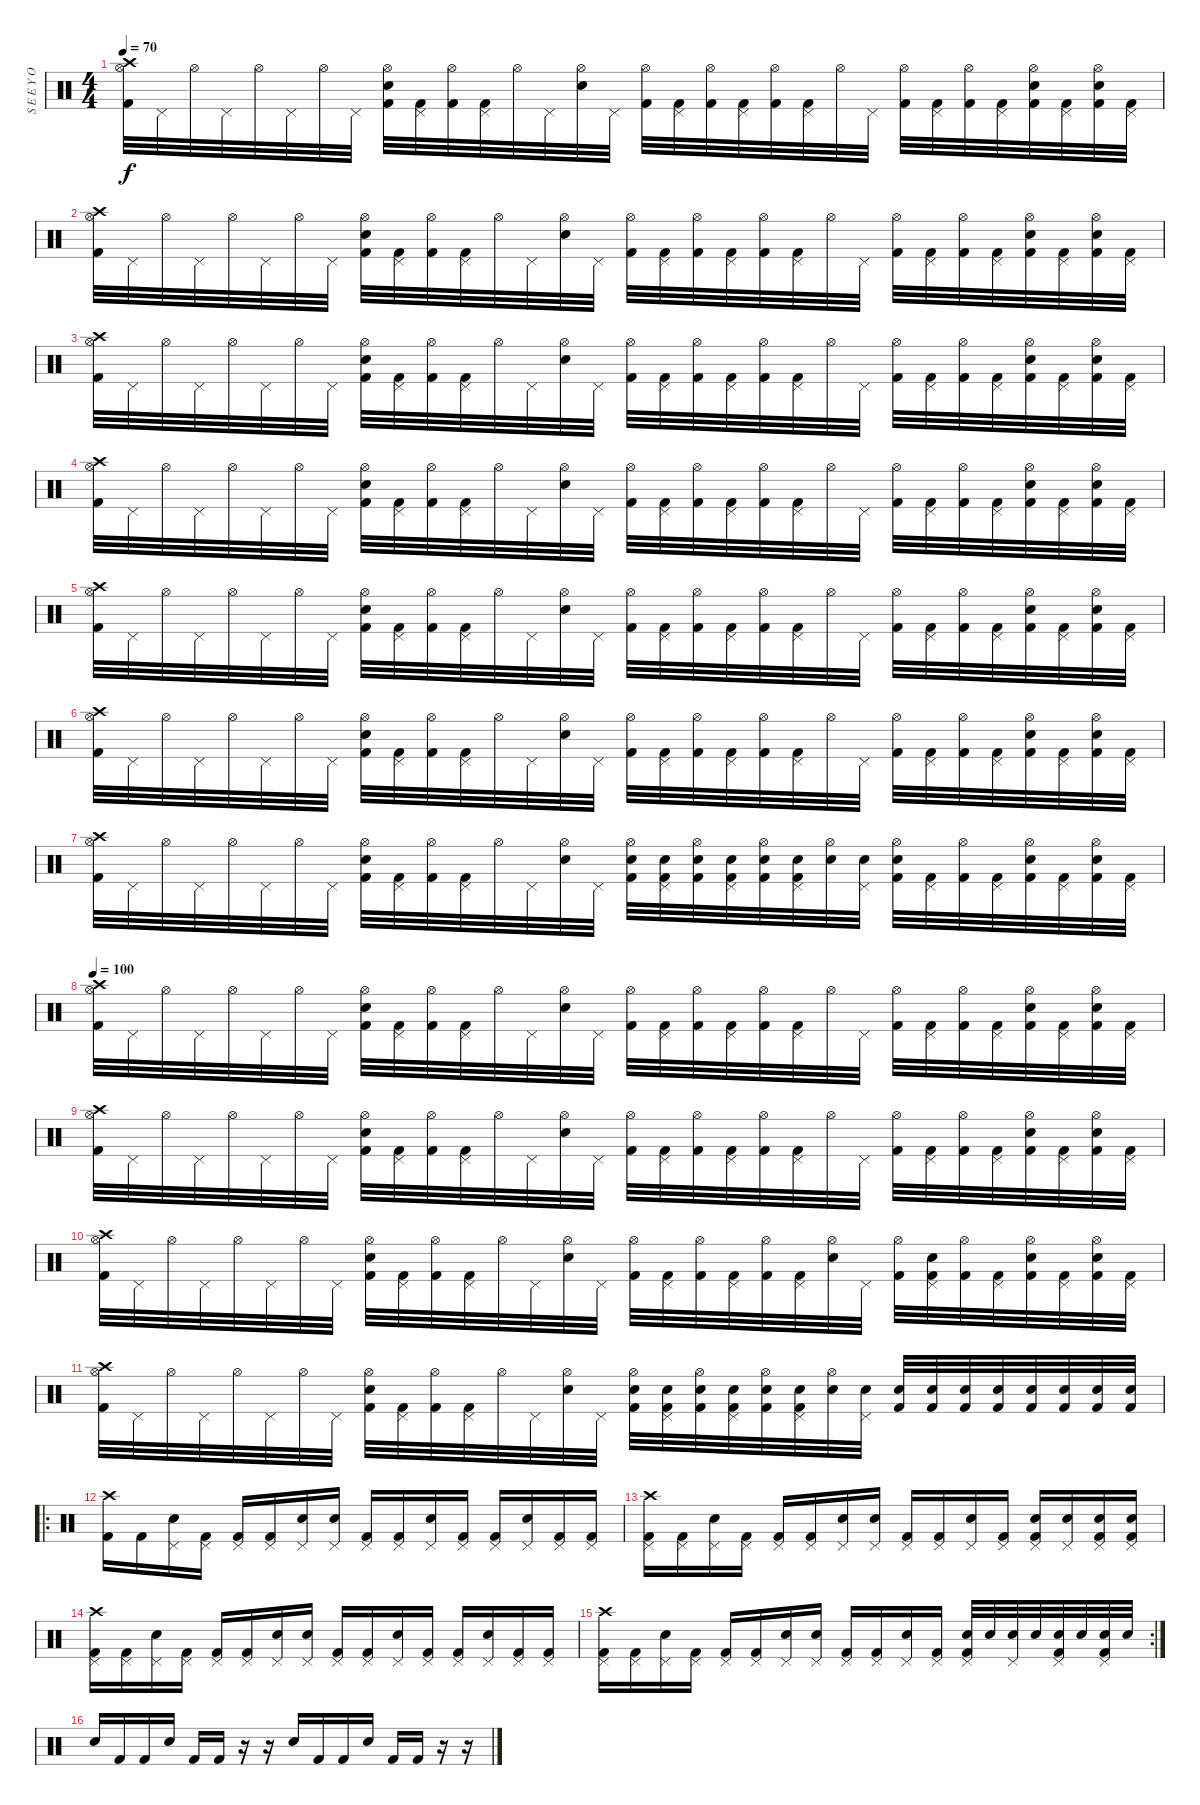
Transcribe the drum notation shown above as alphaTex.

\track ("S E E Y O U R " "S E E Y O ") {instrument percussion}
\staff {score}
\articulation defaults
\ts (4 4)
\tempo 70
\clef neutral
\ks c
("Crash high (hit)" "Hi-Hat (open)" "Kick (hit) 2").32{dy f} "Pedal Hi-Hat (hit)".32 "Hi-Hat (open)".32 "Pedal Hi-Hat (hit)".32 "Hi-Hat (open)".32 "Pedal Hi-Hat (hit)".32 "Hi-Hat (open)".32 "Pedal Hi-Hat (hit)".32 ("Hi-Hat (open)" "Electric Snare (hit)" "Kick (hit) 2").32 ("Pedal Hi-Hat (hit)" "Kick (hit) 2").32 ("Hi-Hat (open)" "Kick (hit) 2").32 ("Pedal Hi-Hat (hit)" "Kick (hit) 2").32 "Hi-Hat (open)".32 "Pedal Hi-Hat (hit)".32 ("Hi-Hat (open)" "Electric Snare (hit)").32 "Pedal Hi-Hat (hit)".32 ("Hi-Hat (open)" "Kick (hit) 2").32 ("Pedal Hi-Hat (hit)" "Kick (hit) 2").32 ("Hi-Hat (open)" "Kick (hit) 2").32 ("Pedal Hi-Hat (hit)" "Kick (hit) 2").32 ("Hi-Hat (open)" "Kick (hit) 2").32 ("Pedal Hi-Hat (hit)" "Kick (hit) 2").32 "Hi-Hat (open)".32 "Pedal Hi-Hat (hit)".32 ("Hi-Hat (open)" "Kick (hit) 2").32 ("Pedal Hi-Hat (hit)" "Kick (hit) 2").32 ("Hi-Hat (open)" "Kick (hit) 2").32 ("Pedal Hi-Hat (hit)" "Kick (hit) 2").32 ("Hi-Hat (open)" "Electric Snare (hit)" "Kick (hit) 2").32 ("Pedal Hi-Hat (hit)" "Kick (hit) 2").32 ("Hi-Hat (open)" "Electric Snare (hit)" "Kick (hit) 2").32 ("Pedal Hi-Hat (hit)" "Kick (hit) 2").32 |
("Crash high (hit)" "Hi-Hat (open)" "Kick (hit) 2").32 "Pedal Hi-Hat (hit)".32 "Hi-Hat (open)".32 "Pedal Hi-Hat (hit)".32 "Hi-Hat (open)".32 "Pedal Hi-Hat (hit)".32 "Hi-Hat (open)".32 "Pedal Hi-Hat (hit)".32 ("Hi-Hat (open)" "Electric Snare (hit)" "Kick (hit) 2").32 ("Pedal Hi-Hat (hit)" "Kick (hit) 2").32 ("Hi-Hat (open)" "Kick (hit) 2").32 ("Pedal Hi-Hat (hit)" "Kick (hit) 2").32 "Hi-Hat (open)".32 "Pedal Hi-Hat (hit)".32 ("Hi-Hat (open)" "Electric Snare (hit)").32 "Pedal Hi-Hat (hit)".32 ("Hi-Hat (open)" "Kick (hit) 2").32 ("Pedal Hi-Hat (hit)" "Kick (hit) 2").32 ("Hi-Hat (open)" "Kick (hit) 2").32 ("Pedal Hi-Hat (hit)" "Kick (hit) 2").32 ("Hi-Hat (open)" "Kick (hit) 2").32 ("Pedal Hi-Hat (hit)" "Kick (hit) 2").32 "Hi-Hat (open)".32 "Pedal Hi-Hat (hit)".32 ("Hi-Hat (open)" "Kick (hit) 2").32 ("Pedal Hi-Hat (hit)" "Kick (hit) 2").32 ("Hi-Hat (open)" "Kick (hit) 2").32 ("Pedal Hi-Hat (hit)" "Kick (hit) 2").32 ("Hi-Hat (open)" "Electric Snare (hit)" "Kick (hit) 2").32 ("Pedal Hi-Hat (hit)" "Kick (hit) 2").32 ("Hi-Hat (open)" "Electric Snare (hit)" "Kick (hit) 2").32 ("Pedal Hi-Hat (hit)" "Kick (hit) 2").32 |
("Crash high (hit)" "Hi-Hat (open)" "Kick (hit) 2").32 "Pedal Hi-Hat (hit)".32 "Hi-Hat (open)".32 "Pedal Hi-Hat (hit)".32 "Hi-Hat (open)".32 "Pedal Hi-Hat (hit)".32 "Hi-Hat (open)".32 "Pedal Hi-Hat (hit)".32 ("Hi-Hat (open)" "Electric Snare (hit)" "Kick (hit) 2").32 ("Pedal Hi-Hat (hit)" "Kick (hit) 2").32 ("Hi-Hat (open)" "Kick (hit) 2").32 ("Pedal Hi-Hat (hit)" "Kick (hit) 2").32 "Hi-Hat (open)".32 "Pedal Hi-Hat (hit)".32 ("Hi-Hat (open)" "Electric Snare (hit)").32 "Pedal Hi-Hat (hit)".32 ("Hi-Hat (open)" "Kick (hit) 2").32 ("Pedal Hi-Hat (hit)" "Kick (hit) 2").32 ("Hi-Hat (open)" "Kick (hit) 2").32 ("Pedal Hi-Hat (hit)" "Kick (hit) 2").32 ("Hi-Hat (open)" "Kick (hit) 2").32 ("Pedal Hi-Hat (hit)" "Kick (hit) 2").32 "Hi-Hat (open)".32 "Pedal Hi-Hat (hit)".32 ("Hi-Hat (open)" "Kick (hit) 2").32 ("Pedal Hi-Hat (hit)" "Kick (hit) 2").32 ("Hi-Hat (open)" "Kick (hit) 2").32 ("Pedal Hi-Hat (hit)" "Kick (hit) 2").32 ("Hi-Hat (open)" "Electric Snare (hit)" "Kick (hit) 2").32 ("Pedal Hi-Hat (hit)" "Kick (hit) 2").32 ("Hi-Hat (open)" "Electric Snare (hit)" "Kick (hit) 2").32 ("Pedal Hi-Hat (hit)" "Kick (hit) 2").32 |
("Crash high (hit)" "Hi-Hat (open)" "Kick (hit) 2").32 "Pedal Hi-Hat (hit)".32 "Hi-Hat (open)".32 "Pedal Hi-Hat (hit)".32 "Hi-Hat (open)".32 "Pedal Hi-Hat (hit)".32 "Hi-Hat (open)".32 "Pedal Hi-Hat (hit)".32 ("Hi-Hat (open)" "Electric Snare (hit)" "Kick (hit) 2").32 ("Pedal Hi-Hat (hit)" "Kick (hit) 2").32 ("Hi-Hat (open)" "Kick (hit) 2").32 ("Pedal Hi-Hat (hit)" "Kick (hit) 2").32 "Hi-Hat (open)".32 "Pedal Hi-Hat (hit)".32 ("Hi-Hat (open)" "Electric Snare (hit)").32 "Pedal Hi-Hat (hit)".32 ("Hi-Hat (open)" "Kick (hit) 2").32 ("Pedal Hi-Hat (hit)" "Kick (hit) 2").32 ("Hi-Hat (open)" "Kick (hit) 2").32 ("Pedal Hi-Hat (hit)" "Kick (hit) 2").32 ("Hi-Hat (open)" "Kick (hit) 2").32 ("Pedal Hi-Hat (hit)" "Kick (hit) 2").32 "Hi-Hat (open)".32 "Pedal Hi-Hat (hit)".32 ("Hi-Hat (open)" "Kick (hit) 2").32 ("Pedal Hi-Hat (hit)" "Kick (hit) 2").32 ("Hi-Hat (open)" "Kick (hit) 2").32 ("Pedal Hi-Hat (hit)" "Kick (hit) 2").32 ("Hi-Hat (open)" "Electric Snare (hit)" "Kick (hit) 2").32 ("Pedal Hi-Hat (hit)" "Kick (hit) 2").32 ("Hi-Hat (open)" "Electric Snare (hit)" "Kick (hit) 2").32 ("Pedal Hi-Hat (hit)" "Kick (hit) 2").32 |
("Crash high (hit)" "Hi-Hat (open)" "Kick (hit) 2").32 "Pedal Hi-Hat (hit)".32 "Hi-Hat (open)".32 "Pedal Hi-Hat (hit)".32 "Hi-Hat (open)".32 "Pedal Hi-Hat (hit)".32 "Hi-Hat (open)".32 "Pedal Hi-Hat (hit)".32 ("Hi-Hat (open)" "Electric Snare (hit)" "Kick (hit) 2").32 ("Pedal Hi-Hat (hit)" "Kick (hit) 2").32 ("Hi-Hat (open)" "Kick (hit) 2").32 ("Pedal Hi-Hat (hit)" "Kick (hit) 2").32 "Hi-Hat (open)".32 "Pedal Hi-Hat (hit)".32 ("Hi-Hat (open)" "Electric Snare (hit)").32 "Pedal Hi-Hat (hit)".32 ("Hi-Hat (open)" "Kick (hit) 2").32 ("Pedal Hi-Hat (hit)" "Kick (hit) 2").32 ("Hi-Hat (open)" "Kick (hit) 2").32 ("Pedal Hi-Hat (hit)" "Kick (hit) 2").32 ("Hi-Hat (open)" "Kick (hit) 2").32 ("Pedal Hi-Hat (hit)" "Kick (hit) 2").32 "Hi-Hat (open)".32 "Pedal Hi-Hat (hit)".32 ("Hi-Hat (open)" "Kick (hit) 2").32 ("Pedal Hi-Hat (hit)" "Kick (hit) 2").32 ("Hi-Hat (open)" "Kick (hit) 2").32 ("Pedal Hi-Hat (hit)" "Kick (hit) 2").32 ("Hi-Hat (open)" "Electric Snare (hit)" "Kick (hit) 2").32 ("Pedal Hi-Hat (hit)" "Kick (hit) 2").32 ("Hi-Hat (open)" "Electric Snare (hit)" "Kick (hit) 2").32 ("Pedal Hi-Hat (hit)" "Kick (hit) 2").32 |
("Crash high (hit)" "Hi-Hat (open)" "Kick (hit) 2").32 "Pedal Hi-Hat (hit)".32 "Hi-Hat (open)".32 "Pedal Hi-Hat (hit)".32 "Hi-Hat (open)".32 "Pedal Hi-Hat (hit)".32 "Hi-Hat (open)".32 "Pedal Hi-Hat (hit)".32 ("Hi-Hat (open)" "Electric Snare (hit)" "Kick (hit) 2").32 ("Pedal Hi-Hat (hit)" "Kick (hit) 2").32 ("Hi-Hat (open)" "Kick (hit) 2").32 ("Pedal Hi-Hat (hit)" "Kick (hit) 2").32 "Hi-Hat (open)".32 "Pedal Hi-Hat (hit)".32 ("Hi-Hat (open)" "Electric Snare (hit)").32 "Pedal Hi-Hat (hit)".32 ("Hi-Hat (open)" "Kick (hit) 2").32 ("Pedal Hi-Hat (hit)" "Kick (hit) 2").32 ("Hi-Hat (open)" "Kick (hit) 2").32 ("Pedal Hi-Hat (hit)" "Kick (hit) 2").32 ("Hi-Hat (open)" "Kick (hit) 2").32 ("Pedal Hi-Hat (hit)" "Kick (hit) 2").32 "Hi-Hat (open)".32 "Pedal Hi-Hat (hit)".32 ("Hi-Hat (open)" "Kick (hit) 2").32 ("Pedal Hi-Hat (hit)" "Kick (hit) 2").32 ("Hi-Hat (open)" "Kick (hit) 2").32 ("Pedal Hi-Hat (hit)" "Kick (hit) 2").32 ("Hi-Hat (open)" "Electric Snare (hit)" "Kick (hit) 2").32 ("Pedal Hi-Hat (hit)" "Kick (hit) 2").32 ("Hi-Hat (open)" "Electric Snare (hit)" "Kick (hit) 2").32 ("Pedal Hi-Hat (hit)" "Kick (hit) 2").32 |
("Crash high (hit)" "Hi-Hat (open)" "Kick (hit) 2").32 "Pedal Hi-Hat (hit)".32 "Hi-Hat (open)".32 "Pedal Hi-Hat (hit)".32 "Hi-Hat (open)".32 "Pedal Hi-Hat (hit)".32 "Hi-Hat (open)".32 "Pedal Hi-Hat (hit)".32 ("Hi-Hat (open)" "Electric Snare (hit)" "Kick (hit) 2").32 ("Pedal Hi-Hat (hit)" "Kick (hit) 2").32 ("Hi-Hat (open)" "Kick (hit) 2").32 ("Pedal Hi-Hat (hit)" "Kick (hit) 2").32 "Hi-Hat (open)".32 "Pedal Hi-Hat (hit)".32 ("Hi-Hat (open)" "Electric Snare (hit)").32 "Pedal Hi-Hat (hit)".32 ("Hi-Hat (open)" "Electric Snare (hit)" "Kick (hit) 2").32 ("Pedal Hi-Hat (hit)" "Electric Snare (hit)" "Kick (hit) 2").32 ("Hi-Hat (open)" "Electric Snare (hit)" "Kick (hit) 2").32 ("Pedal Hi-Hat (hit)" "Electric Snare (hit)" "Kick (hit) 2").32 ("Hi-Hat (open)" "Electric Snare (hit)" "Kick (hit) 2").32 ("Pedal Hi-Hat (hit)" "Electric Snare (hit)" "Kick (hit) 2").32 ("Hi-Hat (open)" "Electric Snare (hit)").32 ("Pedal Hi-Hat (hit)" "Electric Snare (hit)").32 ("Hi-Hat (open)" "Electric Snare (hit)" "Kick (hit) 2").32 ("Pedal Hi-Hat (hit)" "Kick (hit) 2").32 ("Hi-Hat (open)" "Kick (hit) 2").32 ("Pedal Hi-Hat (hit)" "Kick (hit) 2").32 ("Hi-Hat (open)" "Electric Snare (hit)" "Kick (hit) 2").32 ("Pedal Hi-Hat (hit)" "Kick (hit) 2").32 ("Hi-Hat (open)" "Electric Snare (hit)" "Kick (hit) 2").32 ("Pedal Hi-Hat (hit)" "Kick (hit) 2").32 |
\tempo 100
("Crash high (hit)" "Hi-Hat (open)" "Kick (hit) 2").32 "Pedal Hi-Hat (hit)".32 "Hi-Hat (open)".32 "Pedal Hi-Hat (hit)".32 "Hi-Hat (open)".32 "Pedal Hi-Hat (hit)".32 "Hi-Hat (open)".32 "Pedal Hi-Hat (hit)".32 ("Hi-Hat (open)" "Electric Snare (hit)" "Kick (hit) 2").32 ("Pedal Hi-Hat (hit)" "Kick (hit) 2").32 ("Hi-Hat (open)" "Kick (hit) 2").32 ("Pedal Hi-Hat (hit)" "Kick (hit) 2").32 "Hi-Hat (open)".32 "Pedal Hi-Hat (hit)".32 ("Hi-Hat (open)" "Electric Snare (hit)").32 "Pedal Hi-Hat (hit)".32 ("Hi-Hat (open)" "Kick (hit) 2").32 ("Pedal Hi-Hat (hit)" "Kick (hit) 2").32 ("Hi-Hat (open)" "Kick (hit) 2").32 ("Pedal Hi-Hat (hit)" "Kick (hit) 2").32 ("Hi-Hat (open)" "Kick (hit) 2").32 ("Pedal Hi-Hat (hit)" "Kick (hit) 2").32 "Hi-Hat (open)".32 "Pedal Hi-Hat (hit)".32 ("Hi-Hat (open)" "Kick (hit) 2").32 ("Pedal Hi-Hat (hit)" "Kick (hit) 2").32 ("Hi-Hat (open)" "Kick (hit) 2").32 ("Pedal Hi-Hat (hit)" "Kick (hit) 2").32 ("Hi-Hat (open)" "Electric Snare (hit)" "Kick (hit) 2").32 ("Pedal Hi-Hat (hit)" "Kick (hit) 2").32 ("Hi-Hat (open)" "Electric Snare (hit)" "Kick (hit) 2").32 ("Pedal Hi-Hat (hit)" "Kick (hit) 2").32 |
("Crash high (hit)" "Hi-Hat (open)" "Kick (hit) 2").32 "Pedal Hi-Hat (hit)".32 "Hi-Hat (open)".32 "Pedal Hi-Hat (hit)".32 "Hi-Hat (open)".32 "Pedal Hi-Hat (hit)".32 "Hi-Hat (open)".32 "Pedal Hi-Hat (hit)".32 ("Hi-Hat (open)" "Electric Snare (hit)" "Kick (hit) 2").32 ("Pedal Hi-Hat (hit)" "Kick (hit) 2").32 ("Hi-Hat (open)" "Kick (hit) 2").32 ("Pedal Hi-Hat (hit)" "Kick (hit) 2").32 "Hi-Hat (open)".32 "Pedal Hi-Hat (hit)".32 ("Hi-Hat (open)" "Electric Snare (hit)").32 "Pedal Hi-Hat (hit)".32 ("Hi-Hat (open)" "Kick (hit) 2").32 ("Pedal Hi-Hat (hit)" "Kick (hit) 2").32 ("Hi-Hat (open)" "Kick (hit) 2").32 ("Pedal Hi-Hat (hit)" "Kick (hit) 2").32 ("Hi-Hat (open)" "Kick (hit) 2").32 ("Pedal Hi-Hat (hit)" "Kick (hit) 2").32 "Hi-Hat (open)".32 "Pedal Hi-Hat (hit)".32 ("Hi-Hat (open)" "Kick (hit) 2").32 ("Pedal Hi-Hat (hit)" "Kick (hit) 2").32 ("Hi-Hat (open)" "Kick (hit) 2").32 ("Pedal Hi-Hat (hit)" "Kick (hit) 2").32 ("Hi-Hat (open)" "Electric Snare (hit)" "Kick (hit) 2").32 ("Pedal Hi-Hat (hit)" "Kick (hit) 2").32 ("Hi-Hat (open)" "Electric Snare (hit)" "Kick (hit) 2").32 ("Pedal Hi-Hat (hit)" "Kick (hit) 2").32 |
("Crash high (hit)" "Hi-Hat (open)" "Kick (hit) 2").32 "Pedal Hi-Hat (hit)".32 "Hi-Hat (open)".32 "Pedal Hi-Hat (hit)".32 "Hi-Hat (open)".32 "Pedal Hi-Hat (hit)".32 "Hi-Hat (open)".32 "Pedal Hi-Hat (hit)".32 ("Hi-Hat (open)" "Electric Snare (hit)" "Kick (hit) 2").32 ("Pedal Hi-Hat (hit)" "Kick (hit) 2").32 ("Hi-Hat (open)" "Kick (hit) 2").32 ("Pedal Hi-Hat (hit)" "Kick (hit) 2").32 "Hi-Hat (open)".32 "Pedal Hi-Hat (hit)".32 ("Hi-Hat (open)" "Electric Snare (hit)").32 "Pedal Hi-Hat (hit)".32 ("Hi-Hat (open)" "Kick (hit) 2").32 ("Pedal Hi-Hat (hit)" "Kick (hit) 2").32 ("Hi-Hat (open)" "Kick (hit) 2").32 ("Pedal Hi-Hat (hit)" "Kick (hit) 2").32 ("Hi-Hat (open)" "Kick (hit) 2").32 ("Pedal Hi-Hat (hit)" "Kick (hit) 2").32 ("Hi-Hat (open)" "Electric Snare (hit)").32 "Pedal Hi-Hat (hit)".32 ("Hi-Hat (open)" "Kick (hit) 2").32 ("Pedal Hi-Hat (hit)" "Electric Snare (hit)" "Kick (hit) 2").32 ("Hi-Hat (open)" "Kick (hit) 2").32 ("Pedal Hi-Hat (hit)" "Kick (hit) 2").32 ("Hi-Hat (open)" "Electric Snare (hit)" "Kick (hit) 2").32 ("Pedal Hi-Hat (hit)" "Kick (hit) 2").32 ("Hi-Hat (open)" "Electric Snare (hit)" "Kick (hit) 2").32 ("Pedal Hi-Hat (hit)" "Kick (hit) 2").32 |
("Crash high (hit)" "Hi-Hat (open)" "Kick (hit) 2").32 "Pedal Hi-Hat (hit)".32 "Hi-Hat (open)".32 "Pedal Hi-Hat (hit)".32 "Hi-Hat (open)".32 "Pedal Hi-Hat (hit)".32 "Hi-Hat (open)".32 "Pedal Hi-Hat (hit)".32 ("Hi-Hat (open)" "Electric Snare (hit)" "Kick (hit) 2").32 ("Pedal Hi-Hat (hit)" "Kick (hit) 2").32 ("Hi-Hat (open)" "Kick (hit) 2").32 ("Pedal Hi-Hat (hit)" "Kick (hit) 2").32 "Hi-Hat (open)".32 "Pedal Hi-Hat (hit)".32 ("Hi-Hat (open)" "Electric Snare (hit)").32 "Pedal Hi-Hat (hit)".32 ("Hi-Hat (open)" "Electric Snare (hit)" "Kick (hit) 2").32 ("Pedal Hi-Hat (hit)" "Electric Snare (hit)" "Kick (hit) 2").32 ("Hi-Hat (open)" "Electric Snare (hit)" "Kick (hit) 2").32 ("Pedal Hi-Hat (hit)" "Electric Snare (hit)" "Kick (hit) 2").32 ("Hi-Hat (open)" "Electric Snare (hit)" "Kick (hit) 2").32 ("Pedal Hi-Hat (hit)" "Electric Snare (hit)" "Kick (hit) 2").32 ("Hi-Hat (open)" "Electric Snare (hit)").32 ("Pedal Hi-Hat (hit)" "Electric Snare (hit)").32 ("Electric Snare (hit)" "Kick (hit) 2").32 ("Electric Snare (hit)" "Kick (hit) 2").32 ("Electric Snare (hit)" "Kick (hit) 2").32 ("Electric Snare (hit)" "Kick (hit) 2").32 ("Electric Snare (hit)" "Kick (hit) 2").32 ("Electric Snare (hit)" "Kick (hit) 2").32 ("Electric Snare (hit)" "Kick (hit) 2").32 ("Electric Snare (hit)" "Kick (hit) 2").32 |
\ro
("Crash high (hit)" "Kick (hit) 2").16 "Kick (hit) 2".16 ("Pedal Hi-Hat (hit)" "Electric Snare (hit)").16 ("Pedal Hi-Hat (hit)" "Kick (hit) 2").16 ("Pedal Hi-Hat (hit)" "Kick (hit) 2").16 ("Pedal Hi-Hat (hit)" "Kick (hit) 2").16 ("Pedal Hi-Hat (hit)" "Electric Snare (hit)").16 ("Pedal Hi-Hat (hit)" "Electric Snare (hit)").16 ("Pedal Hi-Hat (hit)" "Kick (hit) 2").16 ("Pedal Hi-Hat (hit)" "Kick (hit) 2").16 ("Pedal Hi-Hat (hit)" "Electric Snare (hit)").16 ("Pedal Hi-Hat (hit)" "Kick (hit) 2").16 ("Pedal Hi-Hat (hit)" "Kick (hit) 2").16 ("Pedal Hi-Hat (hit)" "Electric Snare (hit)").16 ("Pedal Hi-Hat (hit)" "Kick (hit) 2").16 ("Pedal Hi-Hat (hit)" "Kick (hit) 2").16 |
("Crash high (hit)" "Pedal Hi-Hat (hit)" "Kick (hit) 2").16 ("Pedal Hi-Hat (hit)" "Kick (hit) 2").16 ("Pedal Hi-Hat (hit)" "Electric Snare (hit)").16 ("Pedal Hi-Hat (hit)" "Kick (hit) 2").16 ("Pedal Hi-Hat (hit)" "Kick (hit) 2").16 ("Pedal Hi-Hat (hit)" "Kick (hit) 2").16 ("Pedal Hi-Hat (hit)" "Electric Snare (hit)").16 ("Pedal Hi-Hat (hit)" "Electric Snare (hit)").16 ("Pedal Hi-Hat (hit)" "Kick (hit) 2").16 ("Pedal Hi-Hat (hit)" "Kick (hit) 2").16 ("Pedal Hi-Hat (hit)" "Electric Snare (hit)").16 ("Pedal Hi-Hat (hit)" "Kick (hit) 2").16 ("Pedal Hi-Hat (hit)" "Electric Snare (hit)" "Kick (hit) 2").16 ("Pedal Hi-Hat (hit)" "Electric Snare (hit)").16 ("Pedal Hi-Hat (hit)" "Electric Snare (hit)" "Kick (hit) 2").16 ("Pedal Hi-Hat (hit)" "Electric Snare (hit)" "Kick (hit) 2").16 |
("Crash high (hit)" "Pedal Hi-Hat (hit)" "Kick (hit) 2").16 ("Pedal Hi-Hat (hit)" "Kick (hit) 2").16 ("Pedal Hi-Hat (hit)" "Electric Snare (hit)").16 ("Pedal Hi-Hat (hit)" "Kick (hit) 2").16 ("Pedal Hi-Hat (hit)" "Kick (hit) 2").16 ("Pedal Hi-Hat (hit)" "Kick (hit) 2").16 ("Pedal Hi-Hat (hit)" "Electric Snare (hit)").16 ("Pedal Hi-Hat (hit)" "Electric Snare (hit)").16 ("Pedal Hi-Hat (hit)" "Kick (hit) 2").16 ("Pedal Hi-Hat (hit)" "Kick (hit) 2").16 ("Pedal Hi-Hat (hit)" "Electric Snare (hit)").16 ("Pedal Hi-Hat (hit)" "Kick (hit) 2").16 ("Pedal Hi-Hat (hit)" "Kick (hit) 2").16 ("Pedal Hi-Hat (hit)" "Electric Snare (hit)").16 ("Pedal Hi-Hat (hit)" "Kick (hit) 2").16 ("Pedal Hi-Hat (hit)" "Kick (hit) 2").16 |
\rc 2
("Crash high (hit)" "Pedal Hi-Hat (hit)" "Kick (hit) 2").16 ("Pedal Hi-Hat (hit)" "Kick (hit) 2").16 ("Pedal Hi-Hat (hit)" "Electric Snare (hit)").16 ("Pedal Hi-Hat (hit)" "Kick (hit) 2").16 ("Pedal Hi-Hat (hit)" "Kick (hit) 2").16 ("Pedal Hi-Hat (hit)" "Kick (hit) 2").16 ("Pedal Hi-Hat (hit)" "Electric Snare (hit)").16 ("Pedal Hi-Hat (hit)" "Electric Snare (hit)").16 ("Pedal Hi-Hat (hit)" "Kick (hit) 2").16 ("Pedal Hi-Hat (hit)" "Kick (hit) 2").16 ("Pedal Hi-Hat (hit)" "Electric Snare (hit)").16 ("Pedal Hi-Hat (hit)" "Kick (hit) 2").16 ("Pedal Hi-Hat (hit)" "Electric Snare (hit)" "Kick (hit) 2").32 "Electric Snare (hit)".32 ("Pedal Hi-Hat (hit)" "Electric Snare (hit)").32 "Electric Snare (hit)".32 ("Pedal Hi-Hat (hit)" "Electric Snare (hit)" "Kick (hit) 2").32 "Electric Snare (hit)".32 ("Pedal Hi-Hat (hit)" "Electric Snare (hit)" "Kick (hit) 2").32 "Electric Snare (hit)".32 |
"Electric Snare (hit)".16 "Kick (hit) 2".16 "Kick (hit) 2".16 "Electric Snare (hit)".16 "Kick (hit) 2".16 "Kick (hit) 2".16 r.16 r.16 "Electric Snare (hit)".16 "Kick (hit) 2".16 "Kick (hit) 2".16 "Electric Snare (hit)".16 "Kick (hit) 2".16 "Kick (hit) 2".16 r.16 r.16
